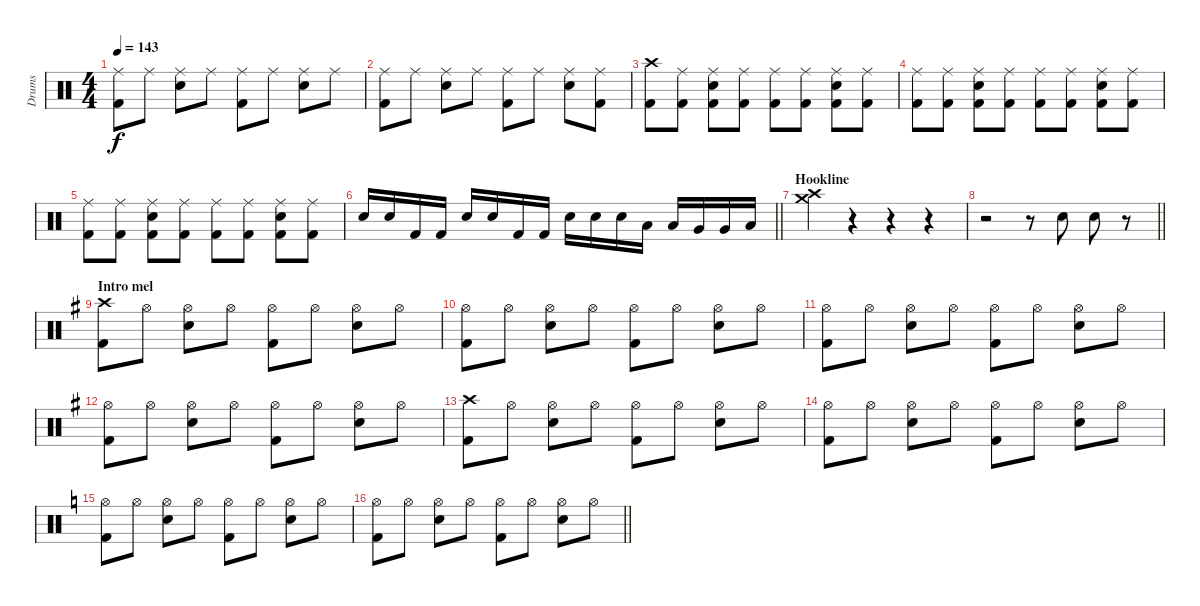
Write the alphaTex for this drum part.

\track ("Drums" "Drums") {instrument percussion}
\staff {score}
\articulation defaults
\ts (4 4)
\tempo 143
\clef neutral
\ks c
("Ride (middle)" "Kick (hit) 2").8{dy f} "Ride (middle)".8 ("Ride (middle)" "Snare (hit) 2").8 "Ride (middle)".8 ("Ride (middle)" "Kick (hit) 2").8 "Ride (middle)".8 ("Ride (middle)" "Snare (hit) 2").8 "Ride (middle)".8 |
("Ride (middle)" "Kick (hit) 2").8 "Ride (middle)".8 ("Ride (middle)" "Snare (hit) 2").8 "Ride (middle)".8 ("Ride (middle)" "Kick (hit) 2").8 "Ride (middle)".8 ("Ride (middle)" "Snare (hit) 2").8 ("Ride (middle)" "Kick (hit) 2").8 |
("Crash high (hit)" "Kick (hit) 2").8 ("Ride (middle)" "Kick (hit) 2").8 ("Ride (middle)" "Snare (hit) 2" "Kick (hit) 2").8 ("Ride (middle)" "Kick (hit) 2").8 ("Ride (middle)" "Kick (hit) 2").8 ("Ride (middle)" "Kick (hit) 2").8 ("Ride (middle)" "Snare (hit) 2" "Kick (hit) 2").8 ("Ride (middle)" "Kick (hit) 2").8 |
("Ride (middle)" "Kick (hit) 2").8 ("Ride (middle)" "Kick (hit) 2").8 ("Ride (middle)" "Snare (hit) 2" "Kick (hit) 2").8 ("Ride (middle)" "Kick (hit) 2").8 ("Ride (middle)" "Kick (hit) 2").8 ("Ride (middle)" "Kick (hit) 2").8 ("Ride (middle)" "Snare (hit) 2" "Kick (hit) 2").8 ("Ride (middle)" "Kick (hit) 2").8 |
("Ride (middle)" "Kick (hit) 2").8 ("Ride (middle)" "Kick (hit) 2").8 ("Ride (middle)" "Snare (hit) 2" "Kick (hit) 2").8 ("Ride (middle)" "Kick (hit) 2").8 ("Ride (middle)" "Kick (hit) 2").8 ("Ride (middle)" "Kick (hit) 2").8 ("Ride (middle)" "Snare (hit) 2" "Kick (hit) 2").8 ("Ride (middle)" "Kick (hit) 2").8 |
\barLineRight lightlight "Snare (hit) 2".16 "Snare (hit) 2".16 "Kick (hit) 2".16 "Kick (hit) 2".16 "Snare (hit) 2".16 "Snare (hit) 2".16 "Kick (hit) 2".16 "Kick (hit) 2".16 "Snare (hit) 2".16 "Snare (hit) 2".16 "Snare (hit) 2".16 "Low Tom (hit)".16 "Low Tom (hit)".16 "Very Low Tom (hit)".16 "Very Low Tom (hit)".16 "Low Tom (hit)".16
|
\section ("" "Hookline")
("Crash medium (hit)" "Crash high (hit)").4 r.4 r.4 r.4 |
\barLineRight lightlight
r.2 r.8 "Snare (hit) 2".8 "Snare (hit) 2".8 r.8 |
\section ("" "Intro mel")
\ks g
("Crash high (hit)" "Kick (hit) 2").8 "Hi-Hat (open)".8 ("Hi-Hat (open)" "Snare (hit) 2").8 "Hi-Hat (open)".8 ("Hi-Hat (open)" "Kick (hit) 2").8 "Hi-Hat (open)".8 ("Hi-Hat (open)" "Snare (hit) 2").8 "Hi-Hat (open)".8 |
("Hi-Hat (open)" "Kick (hit) 2").8 "Hi-Hat (open)".8 ("Hi-Hat (open)" "Snare (hit) 2").8 "Hi-Hat (open)".8 ("Hi-Hat (open)" "Kick (hit) 2").8 "Hi-Hat (open)".8 ("Hi-Hat (open)" "Snare (hit) 2").8 "Hi-Hat (open)".8 |
("Hi-Hat (open)" "Kick (hit) 2").8 "Hi-Hat (open)".8 ("Hi-Hat (open)" "Snare (hit) 2").8 "Hi-Hat (open)".8 ("Hi-Hat (open)" "Kick (hit) 2").8 "Hi-Hat (open)".8 ("Hi-Hat (open)" "Snare (hit) 2").8 "Hi-Hat (open)".8 |
("Hi-Hat (open)" "Kick (hit) 2").8 "Hi-Hat (open)".8 ("Hi-Hat (open)" "Snare (hit) 2").8 "Hi-Hat (open)".8 ("Hi-Hat (open)" "Kick (hit) 2").8 "Hi-Hat (open)".8 ("Hi-Hat (open)" "Snare (hit) 2").8 "Hi-Hat (open)".8 |
("Crash high (hit)" "Kick (hit) 2").8 "Hi-Hat (open)".8 ("Hi-Hat (open)" "Snare (hit) 2").8 "Hi-Hat (open)".8 ("Hi-Hat (open)" "Kick (hit) 2").8 "Hi-Hat (open)".8 ("Hi-Hat (open)" "Snare (hit) 2").8 "Hi-Hat (open)".8 |
("Hi-Hat (open)" "Kick (hit) 2").8 "Hi-Hat (open)".8 ("Hi-Hat (open)" "Snare (hit) 2").8 "Hi-Hat (open)".8 ("Hi-Hat (open)" "Kick (hit) 2").8 "Hi-Hat (open)".8 ("Hi-Hat (open)" "Snare (hit) 2").8 "Hi-Hat (open)".8 |
\ks c
("Hi-Hat (open)" "Kick (hit) 2").8 "Hi-Hat (open)".8 ("Hi-Hat (open)" "Snare (hit) 2").8 "Hi-Hat (open)".8 ("Hi-Hat (open)" "Kick (hit) 2").8 "Hi-Hat (open)".8 ("Hi-Hat (open)" "Snare (hit) 2").8 "Hi-Hat (open)".8 |
\barLineRight lightlight
("Hi-Hat (open)" "Kick (hit) 2").8 "Hi-Hat (open)".8 ("Hi-Hat (open)" "Snare (hit) 2").8 "Hi-Hat (open)".8 ("Hi-Hat (open)" "Kick (hit) 2").8 "Hi-Hat (open)".8 ("Hi-Hat (open)" "Snare (hit) 2").8 "Hi-Hat (open)".8
